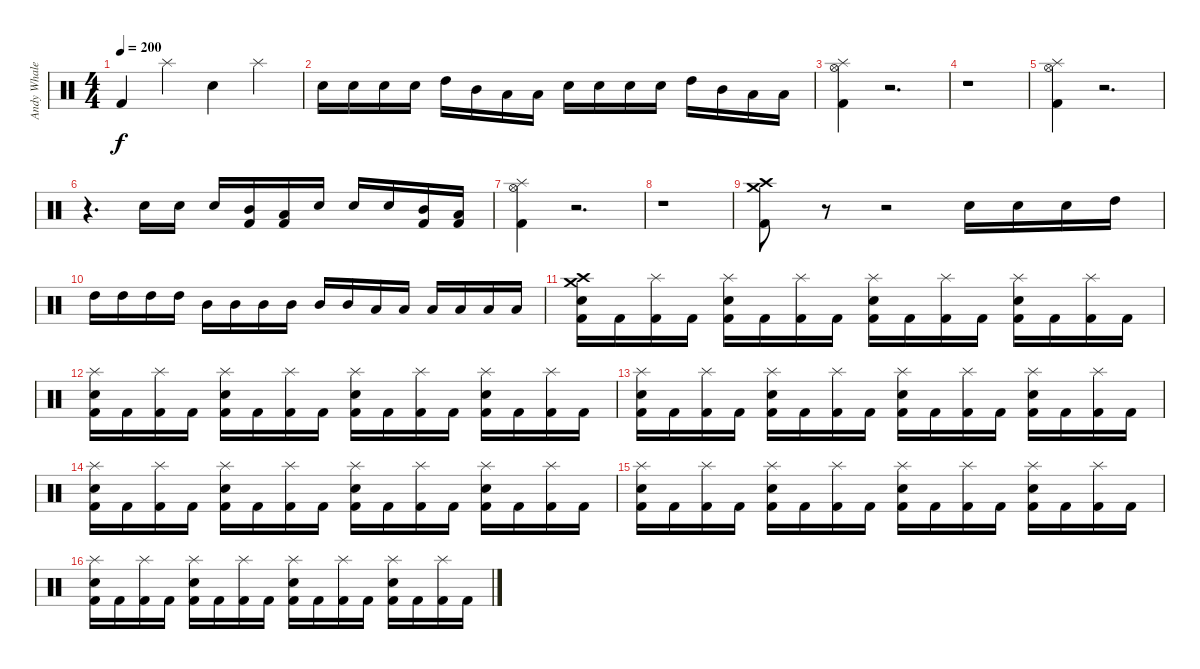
\track ("Andy Whale" "Andy Whale") {instrument percussion}
\staff {score}
\articulation defaults
\ts (4 4)
\tempo 200
\clef neutral
\ks c "Kick (hit) 2".4{dy f} "Splash (hit)".4 "Electric Snare (hit)".4 "Splash (hit)".4
|
"Electric Snare (hit)".16 "Electric Snare (hit)".16 "Electric Snare (hit)".16 "Electric Snare (hit)".16 "High Tom (hit)".16 "Mid Tom (hit)".16 "Low Tom (hit)".16 "Low Tom (hit)".16 "Electric Snare (hit)".16 "Electric Snare (hit)".16 "Electric Snare (hit)".16 "Electric Snare (hit)".16 "High Tom (hit)".16 "Mid Tom (hit)".16 "Low Tom (hit)".16 "Low Tom (hit)".16 |
("Splash (hit)" "Hi-Hat (open)" "Kick (hit) 2").4 r.2{d} |
r.1 |
("Splash (hit)" "Hi-Hat (open)" "Kick (hit) 2").4 r.2{d} |
r.4{d} "Electric Snare (hit)".16 "Electric Snare (hit)".16 "Electric Snare (hit)".16 ("Mid Tom (hit)" "Kick (hit) 2").16 ("Low Tom (hit)" "Kick (hit) 2").16 "Electric Snare (hit)".16 "Electric Snare (hit)".16 "Electric Snare (hit)".16 ("Mid Tom (hit)" "Kick (hit) 2").16 ("Low Tom (hit)" "Kick (hit) 2").16 |
("Splash (hit)" "Hi-Hat (open)" "Kick (hit) 2").4 r.2{d} |
r.1 |
("Crash medium (hit)" "Crash high (hit)" "Kick (hit) 2").8 r.8 r.2 "Electric Snare (hit)".16 "Electric Snare (hit)".16 "Electric Snare (hit)".16 "High Tom (hit)".16 |
"High Tom (hit)".16 "High Tom (hit)".16 "High Tom (hit)".16 "High Tom (hit)".16 "Mid Tom (hit)".16 "Mid Tom (hit)".16 "Mid Tom (hit)".16 "Mid Tom (hit)".16 "Mid Tom (hit)".16 "Mid Tom (hit)".16 "Low Tom (hit)".16 "Low Tom (hit)".16 "Low Tom (hit)".16 "Low Tom (hit)".16 "Low Tom (hit)".16 "Low Tom (hit)".16 |
("Crash medium (hit)" "Crash high (hit)" "Electric Snare (hit)" "Kick (hit) 2").16 "Kick (hit) 2".16 ("Splash (hit)" "Kick (hit) 2").16 "Kick (hit) 2".16 ("Splash (hit)" "Electric Snare (hit)" "Kick (hit) 2").16 "Kick (hit) 2".16 ("Splash (hit)" "Kick (hit) 2").16 "Kick (hit) 2".16 ("Splash (hit)" "Electric Snare (hit)" "Kick (hit) 2").16 "Kick (hit) 2".16 ("Splash (hit)" "Kick (hit) 2").16 "Kick (hit) 2".16 ("Splash (hit)" "Electric Snare (hit)" "Kick (hit) 2").16 "Kick (hit) 2".16 ("Splash (hit)" "Kick (hit) 2").16 "Kick (hit) 2".16 |
("Splash (hit)" "Electric Snare (hit)" "Kick (hit) 2").16 "Kick (hit) 2".16 ("Splash (hit)" "Kick (hit) 2").16 "Kick (hit) 2".16 ("Splash (hit)" "Electric Snare (hit)" "Kick (hit) 2").16 "Kick (hit) 2".16 ("Splash (hit)" "Kick (hit) 2").16 "Kick (hit) 2".16 ("Splash (hit)" "Electric Snare (hit)" "Kick (hit) 2").16 "Kick (hit) 2".16 ("Splash (hit)" "Kick (hit) 2").16 "Kick (hit) 2".16 ("Splash (hit)" "Electric Snare (hit)" "Kick (hit) 2").16 "Kick (hit) 2".16 ("Splash (hit)" "Kick (hit) 2").16 "Kick (hit) 2".16 |
("Splash (hit)" "Electric Snare (hit)" "Kick (hit) 2").16 "Kick (hit) 2".16 ("Splash (hit)" "Kick (hit) 2").16 "Kick (hit) 2".16 ("Splash (hit)" "Electric Snare (hit)" "Kick (hit) 2").16 "Kick (hit) 2".16 ("Splash (hit)" "Kick (hit) 2").16 "Kick (hit) 2".16 ("Splash (hit)" "Electric Snare (hit)" "Kick (hit) 2").16 "Kick (hit) 2".16 ("Splash (hit)" "Kick (hit) 2").16 "Kick (hit) 2".16 ("Splash (hit)" "Electric Snare (hit)" "Kick (hit) 2").16 "Kick (hit) 2".16 ("Splash (hit)" "Kick (hit) 2").16 "Kick (hit) 2".16 |
("Splash (hit)" "Electric Snare (hit)" "Kick (hit) 2").16 "Kick (hit) 2".16 ("Splash (hit)" "Kick (hit) 2").16 "Kick (hit) 2".16 ("Splash (hit)" "Electric Snare (hit)" "Kick (hit) 2").16 "Kick (hit) 2".16 ("Splash (hit)" "Kick (hit) 2").16 "Kick (hit) 2".16 ("Splash (hit)" "Electric Snare (hit)" "Kick (hit) 2").16 "Kick (hit) 2".16 ("Splash (hit)" "Kick (hit) 2").16 "Kick (hit) 2".16 ("Splash (hit)" "Electric Snare (hit)" "Kick (hit) 2").16 "Kick (hit) 2".16 ("Splash (hit)" "Kick (hit) 2").16 "Kick (hit) 2".16 |
("Splash (hit)" "Electric Snare (hit)" "Kick (hit) 2").16 "Kick (hit) 2".16 ("Splash (hit)" "Kick (hit) 2").16 "Kick (hit) 2".16 ("Splash (hit)" "Electric Snare (hit)" "Kick (hit) 2").16 "Kick (hit) 2".16 ("Splash (hit)" "Kick (hit) 2").16 "Kick (hit) 2".16 ("Splash (hit)" "Electric Snare (hit)" "Kick (hit) 2").16 "Kick (hit) 2".16 ("Splash (hit)" "Kick (hit) 2").16 "Kick (hit) 2".16 ("Splash (hit)" "Electric Snare (hit)" "Kick (hit) 2").16 "Kick (hit) 2".16 ("Splash (hit)" "Kick (hit) 2").16 "Kick (hit) 2".16 |
("Splash (hit)" "Electric Snare (hit)" "Kick (hit) 2").16 "Kick (hit) 2".16 ("Splash (hit)" "Kick (hit) 2").16 "Kick (hit) 2".16 ("Splash (hit)" "Electric Snare (hit)" "Kick (hit) 2").16 "Kick (hit) 2".16 ("Splash (hit)" "Kick (hit) 2").16 "Kick (hit) 2".16 ("Splash (hit)" "Electric Snare (hit)" "Kick (hit) 2").16 "Kick (hit) 2".16 ("Splash (hit)" "Kick (hit) 2").16 "Kick (hit) 2".16 ("Splash (hit)" "Electric Snare (hit)" "Kick (hit) 2").16 "Kick (hit) 2".16 ("Splash (hit)" "Kick (hit) 2").16 "Kick (hit) 2".16
